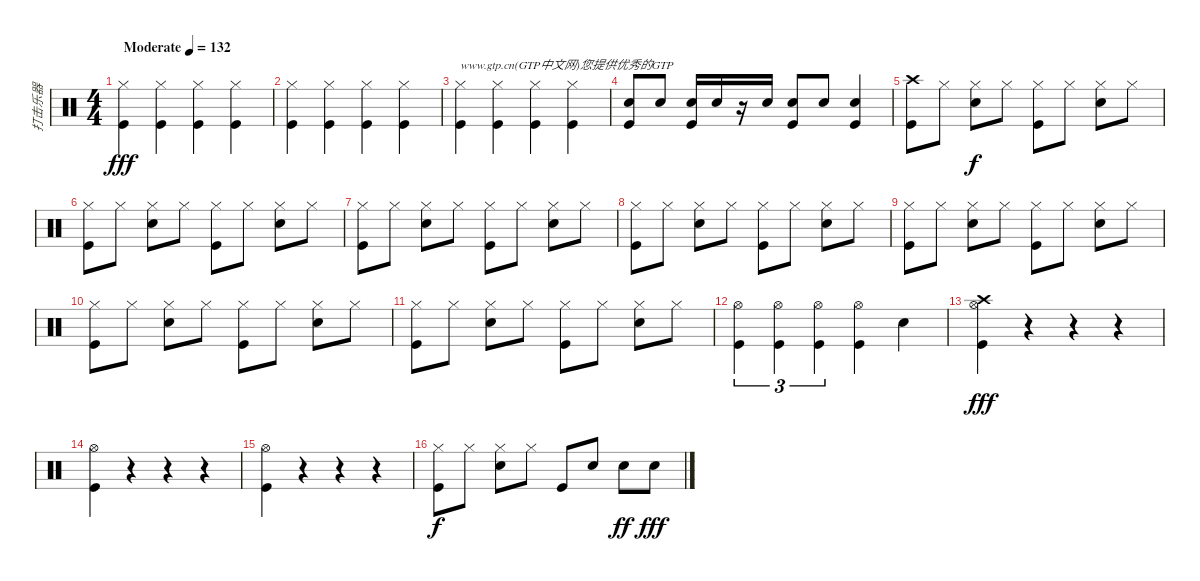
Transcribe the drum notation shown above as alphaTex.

\track ("打击乐器" "打击乐器") {instrument percussion}
\staff {score}
\articulation defaults
\ts (4 4)
\tempo (132 "Moderate")
\clef neutral
\ks c
("Kick (hit)" "Hi-Hat (closed)").4{dy fff} ("Kick (hit)" "Hi-Hat (closed)").4 ("Kick (hit)" "Hi-Hat (closed)").4 ("Kick (hit)" "Hi-Hat (closed)").4 |
("Kick (hit)" "Hi-Hat (closed)").4 ("Kick (hit)" "Hi-Hat (closed)").4 ("Kick (hit)" "Hi-Hat (closed)").4 ("Kick (hit)" "Hi-Hat (closed)").4 |
("Kick (hit)" "Hi-Hat (closed)").4{txt "www.gtp.cn(GTP中文网)您提供优秀的GTP"} ("Kick (hit)" "Hi-Hat (closed)").4 ("Kick (hit)" "Hi-Hat (closed)").4 ("Kick (hit)" "Hi-Hat (closed)").4 |
("Snare (hit) 2" "Kick (hit)").8 "Snare (hit) 2".8 ("Snare (hit) 2" "Kick (hit)").16 "Snare (hit) 2".16 r.16 "Snare (hit) 2".16 ("Snare (hit) 2" "Kick (hit)").8 "Snare (hit) 2".8 ("Snare (hit) 2" "Kick (hit)").4 |
("Crash high (hit)" "Kick (hit)").8 "Hi-Hat (closed)".8 ("Snare (hit) 2" "Hi-Hat (closed)").8{dy f} "Hi-Hat (closed)".8 ("Kick (hit)" "Hi-Hat (closed)").8 "Hi-Hat (closed)".8 ("Snare (hit) 2" "Hi-Hat (closed)").8 "Hi-Hat (closed)".8 |
("Hi-Hat (closed)" "Kick (hit)").8 "Hi-Hat (closed)".8 ("Hi-Hat (closed)" "Snare (hit) 2").8 "Hi-Hat (closed)".8 ("Hi-Hat (closed)" "Kick (hit)").8 "Hi-Hat (closed)".8 ("Hi-Hat (closed)" "Snare (hit) 2").8 "Hi-Hat (closed)".8 |
("Hi-Hat (closed)" "Kick (hit)").8 "Hi-Hat (closed)".8 ("Hi-Hat (closed)" "Snare (hit) 2").8 "Hi-Hat (closed)".8 ("Hi-Hat (closed)" "Kick (hit)").8 "Hi-Hat (closed)".8 ("Hi-Hat (closed)" "Snare (hit) 2").8 "Hi-Hat (closed)".8 |
("Hi-Hat (closed)" "Kick (hit)").8 "Hi-Hat (closed)".8 ("Hi-Hat (closed)" "Snare (hit) 2").8 "Hi-Hat (closed)".8 ("Hi-Hat (closed)" "Kick (hit)").8 "Hi-Hat (closed)".8 ("Hi-Hat (closed)" "Snare (hit) 2").8 "Hi-Hat (closed)".8 |
("Hi-Hat (closed)" "Kick (hit)").8 "Hi-Hat (closed)".8 ("Hi-Hat (closed)" "Snare (hit) 2").8 "Hi-Hat (closed)".8 ("Hi-Hat (closed)" "Kick (hit)").8 "Hi-Hat (closed)".8 ("Hi-Hat (closed)" "Snare (hit) 2").8 "Hi-Hat (closed)".8 |
("Hi-Hat (closed)" "Kick (hit)").8 "Hi-Hat (closed)".8 ("Hi-Hat (closed)" "Snare (hit) 2").8 "Hi-Hat (closed)".8 ("Hi-Hat (closed)" "Kick (hit)").8 "Hi-Hat (closed)".8 ("Hi-Hat (closed)" "Snare (hit) 2").8 "Hi-Hat (closed)".8 |
("Hi-Hat (closed)" "Kick (hit)").8 "Hi-Hat (closed)".8 ("Hi-Hat (closed)" "Snare (hit) 2").8 "Hi-Hat (closed)".8 ("Hi-Hat (closed)" "Kick (hit)").8 "Hi-Hat (closed)".8 ("Hi-Hat (closed)" "Snare (hit) 2").8 "Hi-Hat (closed)".8 |
("Hi-Hat (open)" "Kick (hit)").4{tu (3 2)} ("Hi-Hat (open)" "Kick (hit)").4{tu (3 2)} ("Hi-Hat (open)" "Kick (hit)").4{tu (3 2)} ("Kick (hit)" "Hi-Hat (open)").4 "Snare (hit) 2".4 |
("Crash high (hit)" "Hi-Hat (open)" "Kick (hit)").4{dy fff} r.4 r.4 r.4 |
("Hi-Hat (open)" "Kick (hit)").4 r.4 r.4 r.4 |
("Hi-Hat (open)" "Kick (hit)").4 r.4 r.4 r.4 |
("Hi-Hat (closed)" "Kick (hit)").8{dy f} "Hi-Hat (closed)".8 ("Hi-Hat (closed)" "Snare (hit) 2").8 "Hi-Hat (closed)".8 "Kick (hit)".8 "Snare (hit) 2".8 "Snare (hit) 2".8{dy ff} "Snare (hit) 2".8{dy fff}
